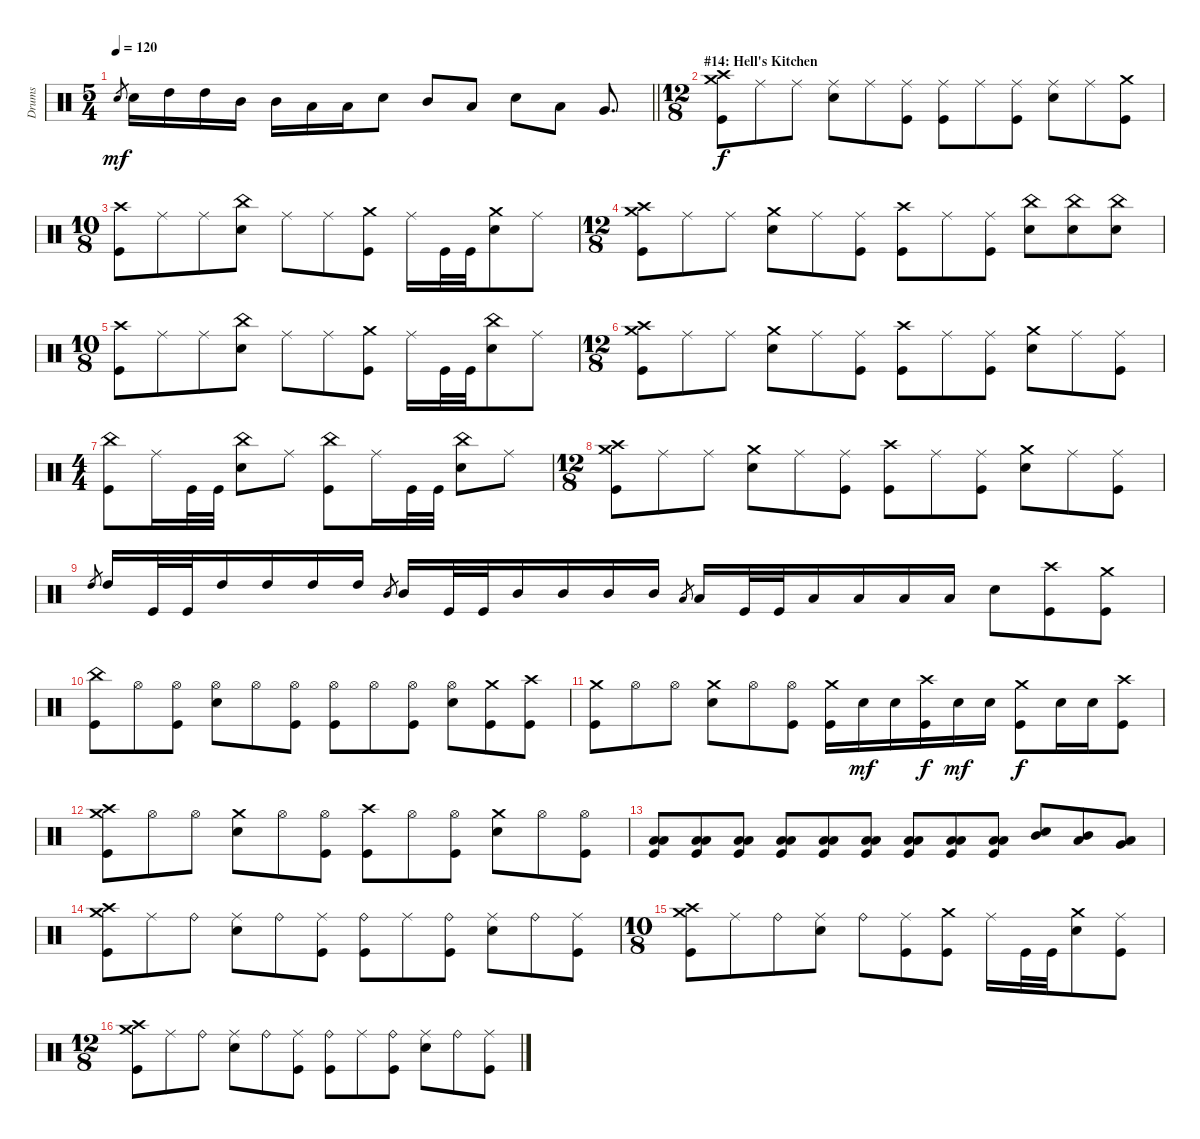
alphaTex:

\track ("Drums" "Drums") {instrument percussion}
\staff {score}
\articulation defaults
\ts (5 4)
\tempo 120
\clef neutral
\barLineRight lightlight
\ks c "Snare (hit) 2".8{gr dy mf} "Snare (hit) 2".16 "High Tom (hit)".16 "High Tom (hit)".16 "Mid Tom (hit)".16 "Mid Tom (hit)".16 "Low Tom (hit)".16 "Low Tom (hit)".16 "Snare (hit) 2".8 "Mid Tom (hit)".8 "Low Tom (hit)".8 "Snare (hit) 2".8 "Low Tom (hit)".8 "Very Low Tom (hit)".8{d}
|
\ts (12 8)
\section ("" "#14: Hell's Kitchen")
("Crash high (hit)" "Crash medium (hit)" "Kick (hit)").8{dy f} "Ride (middle)".8 "Ride (middle)".8 ("Ride (middle)" "Snare (hit) 2").8 "Ride (middle)".8 ("Ride (middle)" "Kick (hit)").8 ("Ride (middle)" "Kick (hit)").8 "Ride (middle)".8 ("Ride (middle)" "Kick (hit)").8 ("Ride (middle)" "Snare (hit) 2").8 "Ride (middle)".8 ("Crash medium (hit)" "Kick (hit)").8 |
\ts (10 8)
("Crash high (hit)" "Kick (hit)").8 "Ride (middle)".8 "Ride (middle)".8 ("China (hit)" "Snare (hit) 2").8 "Ride (middle)".8 "Ride (middle)".8 ("Crash medium (hit)" "Kick (hit)").8 "Ride (middle)".16 "Kick (hit)".32 "Kick (hit)".32 ("Crash medium (hit)" "Snare (hit) 2").8 "Ride (middle)".8 |
\ts (12 8)
("Crash high (hit)" "Crash medium (hit)" "Kick (hit)").8 "Ride (middle)".8 "Ride (middle)".8 ("Crash medium (hit)" "Snare (hit) 2").8 "Ride (middle)".8 ("Ride (middle)" "Kick (hit)").8 ("Crash high (hit)" "Kick (hit)").8 "Ride (middle)".8 ("Ride (middle)" "Kick (hit)").8 ("China (hit)" "Snare (hit) 2").8 ("China (hit)" "Snare (hit) 2").8 ("China (hit)" "Snare (hit) 2").8 |
\ts (10 8)
("Crash high (hit)" "Kick (hit)").8 "Ride (middle)".8 "Ride (middle)".8 ("China (hit)" "Snare (hit) 2").8 "Ride (middle)".8 "Ride (middle)".8 ("Crash medium (hit)" "Kick (hit)").8 "Ride (middle)".16 "Kick (hit)".32 "Kick (hit)".32 ("China (hit)" "Snare (hit) 2").8 "Ride (middle)".8 |
\ts (12 8)
("Crash high (hit)" "Crash medium (hit)" "Kick (hit)").8 "Ride (middle)".8 "Ride (middle)".8 ("Crash medium (hit)" "Snare (hit) 2").8 "Ride (middle)".8 ("Ride (middle)" "Kick (hit)").8 ("Crash high (hit)" "Kick (hit)").8 "Ride (middle)".8 ("Ride (middle)" "Kick (hit)").8 ("Crash medium (hit)" "Snare (hit) 2").8 "Ride (middle)".8 ("Ride (middle)" "Kick (hit)").8 |
\ts (4 4)
("China (hit)" "Kick (hit)").8 "Ride (middle)".16 "Kick (hit)".32 "Kick (hit)".32 ("China (hit)" "Snare (hit) 2").8 "Ride (middle)".8 ("China (hit)" "Kick (hit)").8 "Ride (middle)".16 "Kick (hit)".32 "Kick (hit)".32 ("China (hit)" "Snare (hit) 2").8 "Ride (middle)".8 |
\ts (12 8)
("Crash high (hit)" "Crash medium (hit)" "Kick (hit)").8 "Ride (middle)".8 "Ride (middle)".8 ("Crash medium (hit)" "Snare (hit) 2").8 "Ride (middle)".8 ("Ride (middle)" "Kick (hit)").8 ("Crash high (hit)" "Kick (hit)").8 "Ride (middle)".8 ("Ride (middle)" "Kick (hit)").8 ("Crash medium (hit)" "Snare (hit) 2").8 "Ride (middle)".8 ("Ride (middle)" "Kick (hit)").8 |
"High Tom (hit)".8{gr} "High Tom (hit)".16 "Kick (hit)".32 "Kick (hit)".32 "High Tom (hit)".16 "High Tom (hit)".16 "High Tom (hit)".16 "High Tom (hit)".16 "Mid Tom (hit)".8{gr} "Mid Tom (hit)".16 "Kick (hit)".32 "Kick (hit)".32 "Mid Tom (hit)".16 "Mid Tom (hit)".16 "Mid Tom (hit)".16 "Mid Tom (hit)".16 "Low Tom (hit)".8{gr} "Low Tom (hit)".16 "Kick (hit)".32 "Kick (hit)".32 "Low Tom (hit)".16 "Low Tom (hit)".16 "Low Tom (hit)".16 "Low Tom (hit)".16 "Snare (hit) 2".8 ("Crash high (hit)" "Kick (hit)").8 ("Crash medium (hit)" "Kick (hit)").8 |
("China (hit)" "Kick (hit)").8 "Hi-Hat (open)".8 ("Hi-Hat (open)" "Kick (hit)").8 ("Hi-Hat (open)" "Snare (hit) 2").8 "Hi-Hat (open)".8 ("Hi-Hat (open)" "Kick (hit)").8 ("Hi-Hat (open)" "Kick (hit)").8 "Hi-Hat (open)".8 ("Hi-Hat (open)" "Kick (hit)").8 ("Hi-Hat (open)" "Snare (hit) 2").8 ("Crash medium (hit)" "Kick (hit)").8 ("Crash high (hit)" "Kick (hit)").8 |
("Crash medium (hit)" "Kick (hit)").8 "Hi-Hat (open)".8 "Hi-Hat (open)".8 ("Crash medium (hit)" "Snare (hit) 2").8 "Hi-Hat (open)".8 ("Hi-Hat (open)" "Kick (hit)").8 ("Crash medium (hit)" "Kick (hit)").16 "Snare (hit) 2".16{dy mf} "Snare (hit) 2".16 ("Crash high (hit)" "Kick (hit)").16{dy f} "Snare (hit) 2".16{dy mf} "Snare (hit) 2".16 ("Crash medium (hit)" "Kick (hit)").8{dy f} "Snare (hit) 2".16 "Snare (hit) 2".16 ("Crash high (hit)" "Kick (hit)").8 |
("Crash high (hit)" "Crash medium (hit)" "Kick (hit)").8 "Hi-Hat (open)".8 "Hi-Hat (open)".8 ("Crash medium (hit)" "Snare (hit) 2").8 "Hi-Hat (open)".8 ("Hi-Hat (open)" "Kick (hit)").8 ("Crash high (hit)" "Kick (hit)").8 "Hi-Hat (open)".8 ("Hi-Hat (open)" "Kick (hit)").8 ("Crash medium (hit)" "Snare (hit) 2").8 "Hi-Hat (open)".8 ("Hi-Hat (open)" "Kick (hit)").8 |
("Low Tom (hit)" "Low Floor Tom (hit)" "Kick (hit)").8 ("Low Tom (hit)" "Low Floor Tom (hit)" "Kick (hit)").8 ("Low Tom (hit)" "Low Floor Tom (hit)" "Kick (hit)").8 ("Low Tom (hit)" "Low Floor Tom (hit)" "Kick (hit)").8 ("Low Tom (hit)" "Low Floor Tom (hit)" "Kick (hit)").8 ("Low Tom (hit)" "Low Floor Tom (hit)" "Kick (hit)").8 ("Low Tom (hit)" "Low Floor Tom (hit)" "Kick (hit)").8 ("Low Tom (hit)" "Low Floor Tom (hit)" "Kick (hit)").8 ("Low Tom (hit)" "Low Floor Tom (hit)" "Kick (hit)").8 ("Mid Tom (hit)" "Snare (hit) 2").8 ("Low Tom (hit)" "Mid Tom (hit)").8 ("Very Low Tom (hit)" "Low Tom (hit)").8 |
("Crash high (hit)" "Crash medium (hit)" "Kick (hit)").8 "Ride (middle)".8 "Ride (bell)".8 ("Ride (middle)" "Snare (hit) 2").8 "Ride (bell)".8 ("Ride (middle)" "Kick (hit)").8 ("Ride (bell)" "Kick (hit)").8 "Ride (middle)".8 ("Ride (bell)" "Kick (hit)").8 ("Ride (middle)" "Snare (hit) 2").8 "Ride (bell)".8 ("Ride (middle)" "Kick (hit)").8 |
\ts (10 8)
("Crash high (hit)" "Crash medium (hit)" "Kick (hit)").8 "Ride (middle)".8 "Ride (bell)".8 ("Ride (middle)" "Snare (hit) 2").8 "Ride (bell)".8 ("Ride (middle)" "Kick (hit)").8 ("Crash medium (hit)" "Kick (hit)").8 "Ride (middle)".16 "Kick (hit)".32 "Kick (hit)".32 ("Crash medium (hit)" "Snare (hit) 2").8 ("Ride (middle)" "Kick (hit)").8 |
\ts (12 8)
("Crash high (hit)" "Crash medium (hit)" "Kick (hit)").8 "Ride (middle)".8 "Ride (bell)".8 ("Ride (middle)" "Snare (hit) 2").8 "Ride (bell)".8 ("Ride (middle)" "Kick (hit)").8 ("Ride (bell)" "Kick (hit)").8 "Ride (middle)".8 ("Ride (bell)" "Kick (hit)").8 ("Ride (middle)" "Snare (hit) 2").8 "Ride (bell)".8 ("Ride (middle)" "Kick (hit)").8
